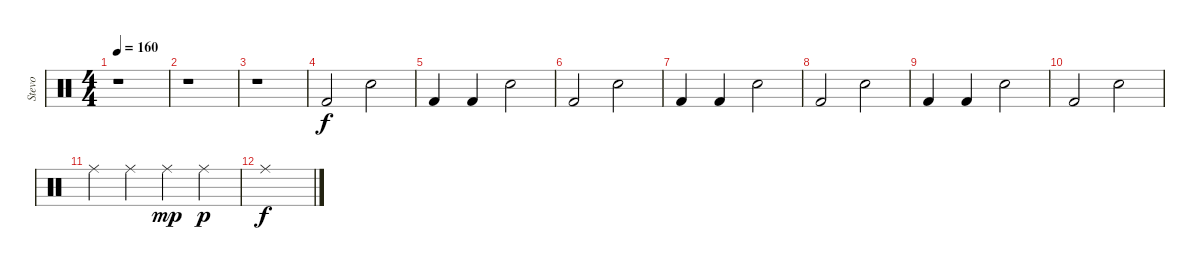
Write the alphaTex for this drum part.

\track ("Stevo" "Stevo") {instrument percussion}
\staff {score}
\articulation defaults
\ts (4 4)
\tempo 160
\clef neutral
\ks c
r.1{dy f} |
r.1 |
r.1 |
"Kick (hit) 2".2 "Electric Snare (hit)".2 |
"Kick (hit) 2".4 "Kick (hit) 2".4 "Electric Snare (hit)".2 |
"Kick (hit) 2".2 "Electric Snare (hit)".2 |
"Kick (hit) 2".4 "Kick (hit) 2".4 "Electric Snare (hit)".2 |
"Kick (hit) 2".2 "Electric Snare (hit)".2 |
"Kick (hit) 2".4 "Kick (hit) 2".4 "Electric Snare (hit)".2 |
"Kick (hit) 2".2 "Electric Snare (hit)".2 |
"Ride (middle)".4 "Ride (middle)".4 "Ride (middle)".4{dy mp} "Ride (middle)".4{dy p} |
"Ride (middle)".1{dy f}
